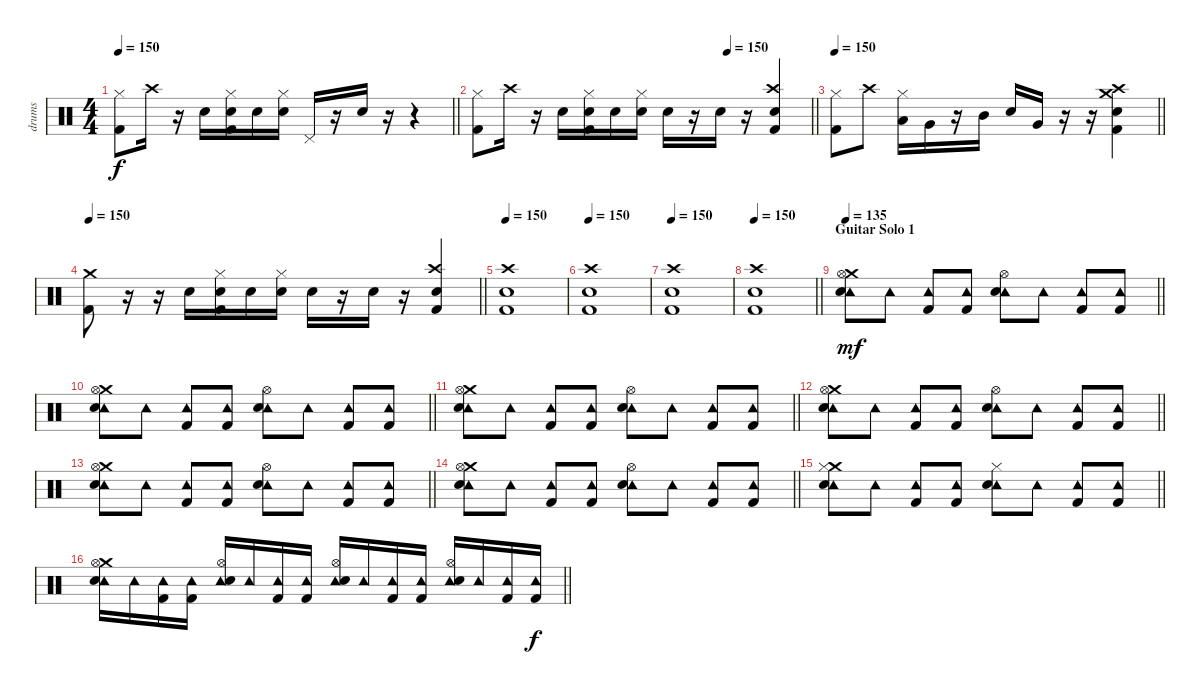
\track ("drums" "drums") {instrument percussion}
\staff {score}
\articulation defaults
\ts (4 4)
\tempo 150
\clef neutral
\barLineRight lightlight
\ks c
("Hi-Hat (closed)" "Kick (hit) 2").8{dy f} "Crash high (hit)".16 r.16 "Snare (hit) 2".16 ("Hi-Hat (closed)" "Snare (hit) 2" "Kick (hit) 2").16 "Snare (hit) 2".16 ("Hi-Hat (closed)" "Snare (hit) 2").16 "Pedal Hi-Hat (hit)".16 r.16 "Snare (hit) 2".16 r.16 r.4 |
\tempo (150 0.75)
\barLineRight lightlight
("Hi-Hat (closed)" "Kick (hit) 2").8 "Crash high (hit)".16 r.16 "Snare (hit) 2".16 ("Hi-Hat (closed)" "Snare (hit) 2" "Kick (hit) 2").16 "Snare (hit) 2".16 ("Hi-Hat (closed)" "Snare (hit) 2").16 "Snare (hit) 2".16 r.16 "Snare (hit) 2".16 r.16 ("Crash high (hit)" "Snare (hit) 2" "Kick (hit) 2").4 |
\tempo 150
\barLineRight lightlight
("Hi-Hat (closed)" "Kick (hit) 2").8 "Crash high (hit)".8 ("Hi-Hat (closed)" "Low Floor Tom (hit)").16 "Very Low Tom (hit)".16 r.16 "Mid Tom (hit)".16 "Snare (hit) 2".16 "Very Low Tom (hit)".16 r.16 r.16 ("Crash high (hit)" "Snare (hit) 2" "Crash medium (hit)" "Kick (hit) 2").4 |
\tempo 150
\barLineRight lightlight
("Crash medium (hit)" "Kick (hit) 2").8 r.16 r.16 "Snare (hit) 2".16 ("Hi-Hat (closed)" "Snare (hit) 2" "Kick (hit) 2").16 "Snare (hit) 2".16 ("Hi-Hat (closed)" "Snare (hit) 2").16 "Snare (hit) 2".16 r.16 "Snare (hit) 2".16 r.16 ("Crash high (hit)" "Snare (hit) 2" "Kick (hit) 2").4 |
\tempo 150
("Crash high (hit)" "Snare (hit) 2" "Kick (hit) 2").1 |
\tempo 150
("Crash high (hit)" "Snare (hit) 2" "Kick (hit) 2").1 |
\tempo 150
("Crash high (hit)" "Snare (hit) 2" "Kick (hit) 2").1 |
\tempo 150
\barLineRight lightlight
("Crash high (hit)" "Snare (hit) 2" "Kick (hit) 2").1 |
\section ("" "Guitar Solo 1")
\tempo 135
\barLineRight lightlight
("Tambourine (hit)" "Crash medium (hit)" "Hi-Hat (open)" "Electric Snare (hit)").8{dy mf} "Tambourine (hit)".8 ("Tambourine (hit)" "Kick (hit) 2").8 ("Tambourine (hit)" "Kick (hit) 2").8 ("Tambourine (hit)" "Hi-Hat (open)" "Electric Snare (hit)").8 "Tambourine (hit)".8 ("Tambourine (hit)" "Kick (hit) 2").8 ("Tambourine (hit)" "Kick (hit) 2").8 |
\barLineRight lightlight
("Tambourine (hit)" "Crash medium (hit)" "Hi-Hat (open)" "Electric Snare (hit)").8 "Tambourine (hit)".8 ("Tambourine (hit)" "Kick (hit) 2").8 ("Tambourine (hit)" "Kick (hit) 2").8 ("Tambourine (hit)" "Hi-Hat (open)" "Electric Snare (hit)").8 "Tambourine (hit)".8 ("Tambourine (hit)" "Kick (hit) 2").8 ("Tambourine (hit)" "Kick (hit) 2").8 |
\barLineRight lightlight
("Tambourine (hit)" "Crash medium (hit)" "Hi-Hat (open)" "Electric Snare (hit)").8 "Tambourine (hit)".8 ("Tambourine (hit)" "Kick (hit) 2").8 ("Tambourine (hit)" "Kick (hit) 2").8 ("Tambourine (hit)" "Hi-Hat (open)" "Electric Snare (hit)").8 "Tambourine (hit)".8 ("Tambourine (hit)" "Kick (hit) 2").8 ("Tambourine (hit)" "Kick (hit) 2").8 |
\barLineRight lightlight
("Tambourine (hit)" "Crash medium (hit)" "Hi-Hat (open)" "Electric Snare (hit)").8 "Tambourine (hit)".8 ("Tambourine (hit)" "Kick (hit) 2").8 ("Tambourine (hit)" "Kick (hit) 2").8 ("Tambourine (hit)" "Hi-Hat (open)" "Electric Snare (hit)").8 "Tambourine (hit)".8 ("Tambourine (hit)" "Kick (hit) 2").8 ("Tambourine (hit)" "Kick (hit) 2").8 |
\barLineRight lightlight
("Tambourine (hit)" "Crash medium (hit)" "Hi-Hat (open)" "Electric Snare (hit)").8 "Tambourine (hit)".8 ("Tambourine (hit)" "Kick (hit) 2").8 ("Tambourine (hit)" "Kick (hit) 2").8 ("Tambourine (hit)" "Hi-Hat (open)" "Electric Snare (hit)").8 "Tambourine (hit)".8 ("Tambourine (hit)" "Kick (hit) 2").8 ("Tambourine (hit)" "Kick (hit) 2").8 |
\barLineRight lightlight
("Tambourine (hit)" "Crash medium (hit)" "Hi-Hat (open)" "Electric Snare (hit)").8 "Tambourine (hit)".8 ("Tambourine (hit)" "Kick (hit) 2").8 ("Tambourine (hit)" "Kick (hit) 2").8 ("Tambourine (hit)" "Hi-Hat (open)" "Electric Snare (hit)").8 "Tambourine (hit)".8 ("Tambourine (hit)" "Kick (hit) 2").8 ("Tambourine (hit)" "Kick (hit) 2").8 |
\barLineRight lightlight
("Tambourine (hit)" "Crash medium (hit)" "Hi-Hat (closed)" "Electric Snare (hit)").8 "Tambourine (hit)".8 ("Tambourine (hit)" "Kick (hit) 2").8 ("Tambourine (hit)" "Kick (hit) 2").8 ("Tambourine (hit)" "Hi-Hat (closed)" "Electric Snare (hit)").8 "Tambourine (hit)".8 ("Tambourine (hit)" "Kick (hit) 2").8 ("Tambourine (hit)" "Kick (hit) 2").8 |
\barLineRight lightlight
("Tambourine (hit)" "Crash medium (hit)" "Hi-Hat (open)" "Electric Snare (hit)").16 "Tambourine (hit)".16 ("Tambourine (hit)" "Kick (hit) 2").16 ("Tambourine (hit)" "Kick (hit) 2").16 ("Tambourine (hit)" "Hi-Hat (open)" "Electric Snare (hit)").16 "Tambourine (hit)".16 ("Tambourine (hit)" "Kick (hit) 2").16 ("Tambourine (hit)" "Kick (hit) 2").16 ("Tambourine (hit)" "Hi-Hat (open)" "Electric Snare (hit)").16 "Tambourine (hit)".16 ("Tambourine (hit)" "Kick (hit) 2").16 ("Tambourine (hit)" "Kick (hit) 2").16 ("Tambourine (hit)" "Hi-Hat (open)" "Electric Snare (hit)").16 "Tambourine (hit)".16 ("Tambourine (hit)" "Kick (hit) 2").16 ("Tambourine (hit)" "Kick (hit) 2").16{dy f}
